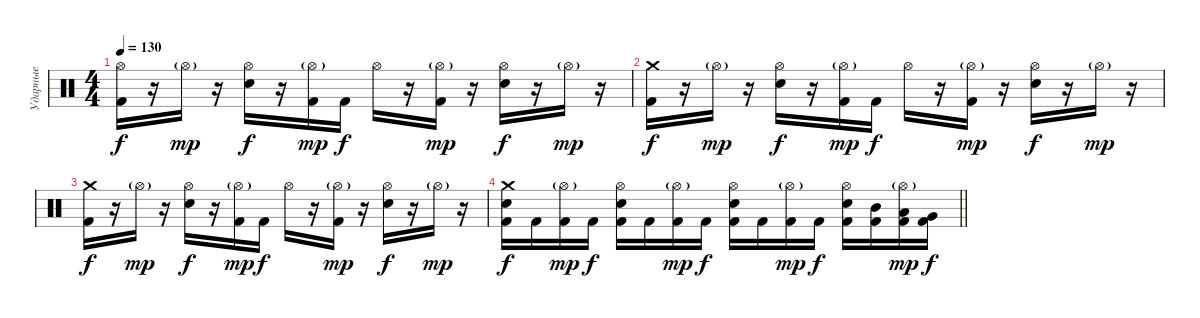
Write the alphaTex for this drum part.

\track ("Ударные" "Ударные") {instrument percussion}
\staff {score}
\articulation defaults
\ts (4 4)
\tempo 130
\clef neutral
\ks c
("Hi-Hat (open)" "Kick (hit) 2").16{dy f} r.16 "Hi-Hat (open)"{g}.16{dy mp} r.16 ("Hi-Hat (open)" "Snare (hit) 2").16{dy f} r.16 ("Hi-Hat (open)"{g} "Kick (hit) 2").16{dy mp} "Kick (hit) 2".16{dy f} "Hi-Hat (open)".16 r.16 ("Hi-Hat (open)"{g} "Kick (hit) 2").16{dy mp} r.16 ("Hi-Hat (open)" "Snare (hit) 2").16{dy f} r.16 "Hi-Hat (open)"{g}.16{dy mp} r.16 |
("Crash medium (hit)" "Kick (hit) 2").16{dy f} r.16 "Hi-Hat (open)"{g}.16{dy mp} r.16 ("Hi-Hat (open)" "Snare (hit) 2").16{dy f} r.16 ("Hi-Hat (open)"{g} "Kick (hit) 2").16{dy mp} "Kick (hit) 2".16{dy f} "Hi-Hat (open)".16 r.16 ("Hi-Hat (open)"{g} "Kick (hit) 2").16{dy mp} r.16 ("Hi-Hat (open)" "Snare (hit) 2").16{dy f} r.16 "Hi-Hat (open)"{g}.16{dy mp} r.16 |
("Crash medium (hit)" "Kick (hit) 2").16{dy f} r.16 "Hi-Hat (open)"{g}.16{dy mp} r.16 ("Hi-Hat (open)" "Snare (hit) 2").16{dy f} r.16 ("Hi-Hat (open)"{g} "Kick (hit) 2").16{dy mp} "Kick (hit) 2".16{dy f} "Hi-Hat (open)".16 r.16 ("Hi-Hat (open)"{g} "Kick (hit) 2").16{dy mp} r.16 ("Hi-Hat (open)" "Snare (hit) 2").16{dy f} r.16 "Hi-Hat (open)"{g}.16{dy mp} r.16 |
\barLineRight lightlight
("Crash medium (hit)" "Snare (hit) 2" "Kick (hit) 2").16{dy f} "Kick (hit) 2".16 ("Hi-Hat (open)"{g} "Kick (hit) 2").16{dy mp} "Kick (hit) 2".16{dy f} ("Hi-Hat (open)" "Snare (hit) 2" "Kick (hit) 2").16 "Kick (hit) 2".16 ("Hi-Hat (open)"{g} "Kick (hit) 2").16{dy mp} "Kick (hit) 2".16{dy f} ("Hi-Hat (open)" "Snare (hit) 2" "Kick (hit) 2").16 "Kick (hit) 2".16 ("Hi-Hat (open)"{g} "Kick (hit) 2").16{dy mp} "Kick (hit) 2".16{dy f} ("Hi-Hat (open)" "Snare (hit) 2" "Kick (hit) 2").16 ("Mid Tom (hit)" "Kick (hit) 2").16 ("Hi-Hat (open)"{g} "Low Tom (hit)" "Kick (hit) 2").16{dy mp} ("Very Low Tom (hit)" "Kick (hit) 2").16{dy f}
